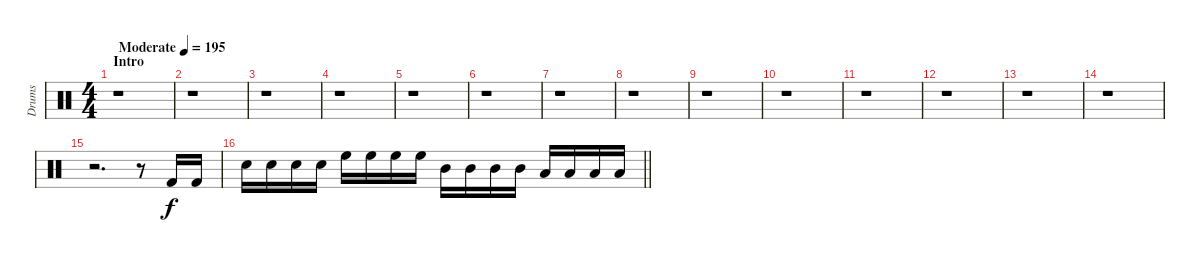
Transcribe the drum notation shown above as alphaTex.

\track ("Drums" "Drums") {instrument percussion}
\staff {score}
\articulation defaults
\ts (4 4)
\section ("" "Intro")
\tempo (195 "Moderate")
\clef neutral
\ks c
r.1{dy f} |
r.1 |
r.1 |
r.1 |
r.1 |
r.1 |
r.1 |
r.1 |
r.1 |
r.1 |
r.1 |
r.1 |
r.1 |
r.1 |
r.2{d} r.8 "Kick (hit) 2".16 "Kick (hit) 2".16 |
\barLineRight lightlight "Snare (hit) 2".16 "Snare (hit) 2".16 "Snare (hit) 2".16 "Snare (hit) 2".16 "High Floor Tom (hit)".16 "High Floor Tom (hit)".16 "High Floor Tom (hit)".16 "High Floor Tom (hit)".16 "Mid Tom (hit)".16 "Mid Tom (hit)".16 "Mid Tom (hit)".16 "Mid Tom (hit)".16 "Low Tom (hit)".16 "Low Tom (hit)".16 "Low Tom (hit)".16 "Low Tom (hit)".16
